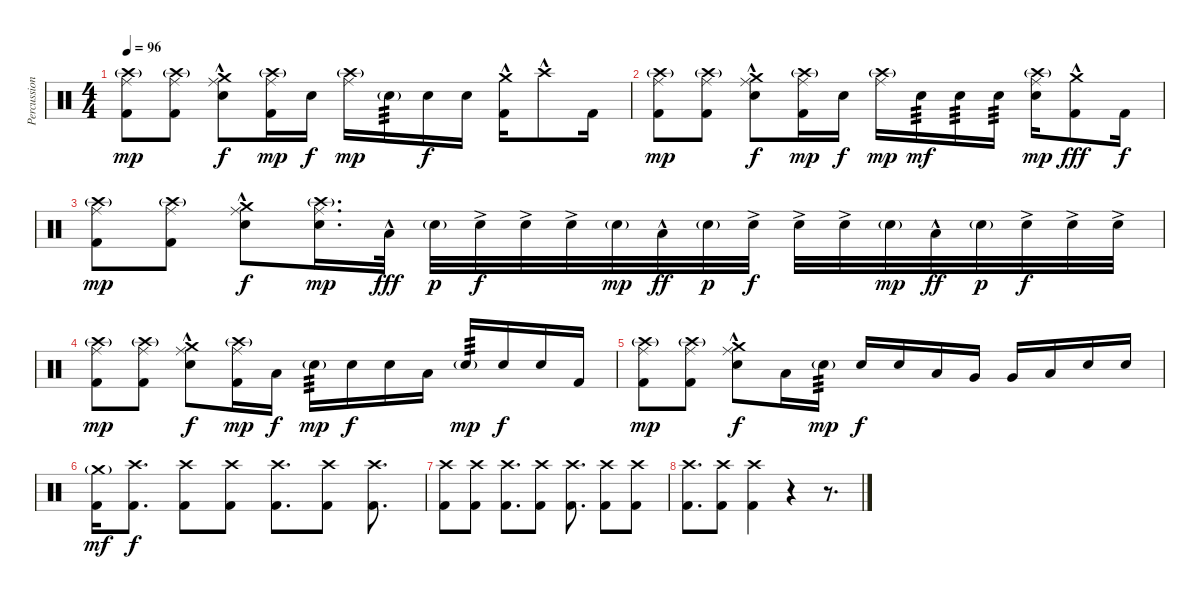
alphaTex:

\track ("Percussion" "Percussion") {instrument percussion}
\staff {score}
\articulation defaults
\ts (4 4)
\tempo 96
\clef neutral
\ks c
("Ride (middle)" "Crash high (hit)"{g} "Kick (hit) 2").8{dy mp} ("Ride (middle)" "Crash high (hit)"{g} "Kick (hit) 2").8 ("Ride (middle)" "Crash medium (hit)"{hac} "Snare (hit) 2").8{dy f} ("Ride (middle)" "Crash high (hit)"{g} "Kick (hit) 2").16{dy mp} "Snare (hit) 2".16{dy f} ("Ride (middle)" "Crash high (hit)"{g}).16{dy mp} "Snare (hit) 2"{g}.16{tp 3} "Snare (hit) 2".16{dy f} "Snare (hit) 2".16 ("Crash medium (hit)"{hac} "Kick (hit) 2").16 "Crash high (hit)"{hac}.8 "Kick (hit) 2".16 |
("Ride (middle)" "Crash high (hit)"{g} "Kick (hit) 2").8{dy mp} ("Ride (middle)" "Crash high (hit)"{g} "Kick (hit) 2").8 ("Ride (middle)" "Crash medium (hit)"{hac} "Snare (hit) 2").8{dy f} ("Ride (middle)" "Crash high (hit)"{g} "Kick (hit) 2").16{dy mp} "Snare (hit) 2".16{dy f} ("Ride (middle)" "Crash high (hit)"{g}).16{dy mp} "Snare (hit) 2".16{tp 3 dy mf} "Snare (hit) 2".16{tp 3} "Snare (hit) 2".16{tp 3} ("Ride (middle)" "Crash high (hit)"{g} "Snare (hit) 2").16{dy mp} ("Crash medium (hit)"{hac} "Kick (hit) 2").8{dy fff} "Kick (hit) 2".16{dy f} |
("Ride (middle)" "Crash high (hit)"{g} "Kick (hit) 2").8{dy mp} ("Ride (middle)" "Crash high (hit)"{g} "Kick (hit) 2").8 ("Ride (middle)" "Crash medium (hit)"{hac} "Snare (hit) 2").8{dy f} ("Ride (middle)" "Crash high (hit)"{g} "Snare (hit) 2").16{d dy mp} "Low Tom (hit)"{hac}.32{dy fff} "Snare (hit) 2"{g}.32{dy p} "Snare (hit) 2"{ac}.32{dy f} "Snare (hit) 2"{ac}.32 "Snare (hit) 2"{ac}.32 "Snare (hit) 2"{g}.32{dy mp} "Low Tom (hit)"{hac}.32{dy ff} "Snare (hit) 2"{g}.32{dy p} "Snare (hit) 2"{ac}.32{dy f} "Snare (hit) 2"{ac}.32 "Snare (hit) 2"{ac}.32 "Snare (hit) 2"{g}.32{dy mp} "Low Tom (hit)"{hac}.32{dy ff} "Snare (hit) 2"{g}.32{dy p} "Snare (hit) 2"{ac}.32{dy f} "Snare (hit) 2"{ac}.32 "Snare (hit) 2"{ac}.32 |
("Ride (middle)" "Crash high (hit)"{g} "Kick (hit) 2").8{dy mp} ("Ride (middle)" "Crash high (hit)"{g} "Kick (hit) 2").8 ("Ride (middle)" "Crash medium (hit)"{hac} "Snare (hit) 2").8{dy f} ("Ride (middle)" "Crash high (hit)"{g} "Kick (hit) 2").16{dy mp} "Low Tom (hit)".16{dy f} "Snare (hit) 2"{g}.16{tp 3 dy mp} "Snare (hit) 2".16{dy f} "Snare (hit) 2".16 "Low Tom (hit)".16 "Snare (hit) 2"{g}.16{tp 3 dy mp} "Snare (hit) 2".16{dy f} "Snare (hit) 2".16 "Kick (hit) 2".16 |
("Ride (middle)" "Crash high (hit)"{g} "Kick (hit) 2").8{dy mp} ("Ride (middle)" "Crash high (hit)"{g} "Kick (hit) 2").8 ("Ride (middle)" "Crash medium (hit)"{hac} "Snare (hit) 2").8{dy f} "Low Floor Tom (hit)".16 "Snare (hit) 2"{g}.16{tp 3 dy mp} "Snare (hit) 2".16{dy f} "Snare (hit) 2".16 "Low Tom (hit)".16 "Very Low Tom (hit)".16 "Very Low Tom (hit)".16 "Low Floor Tom (hit)".16 "Snare (hit) 2".16 "Snare (hit) 2".16 |
("Crash medium (hit)"{g} "Kick (hit) 2").16{dy mf} ("Crash high (hit)" "Kick (hit) 2").8{d dy f} ("Crash high (hit)" "Kick (hit) 2").8 ("Crash high (hit)" "Kick (hit) 2").8 ("Crash high (hit)" "Kick (hit) 2").8{d} ("Crash high (hit)" "Kick (hit) 2").8 ("Crash high (hit)" "Kick (hit) 2").8{d} |
("Crash high (hit)" "Kick (hit) 2").8 ("Crash high (hit)" "Kick (hit) 2").8 ("Crash high (hit)" "Kick (hit) 2").8{d} ("Crash high (hit)" "Kick (hit) 2").8 ("Crash high (hit)" "Kick (hit) 2").8{d} ("Crash high (hit)" "Kick (hit) 2").8 ("Crash high (hit)" "Kick (hit) 2").8 |
("Crash high (hit)" "Kick (hit) 2").8{d} ("Crash high (hit)" "Kick (hit) 2").8 ("Crash high (hit)" "Kick (hit) 2").4 r.4 r.8{d}
